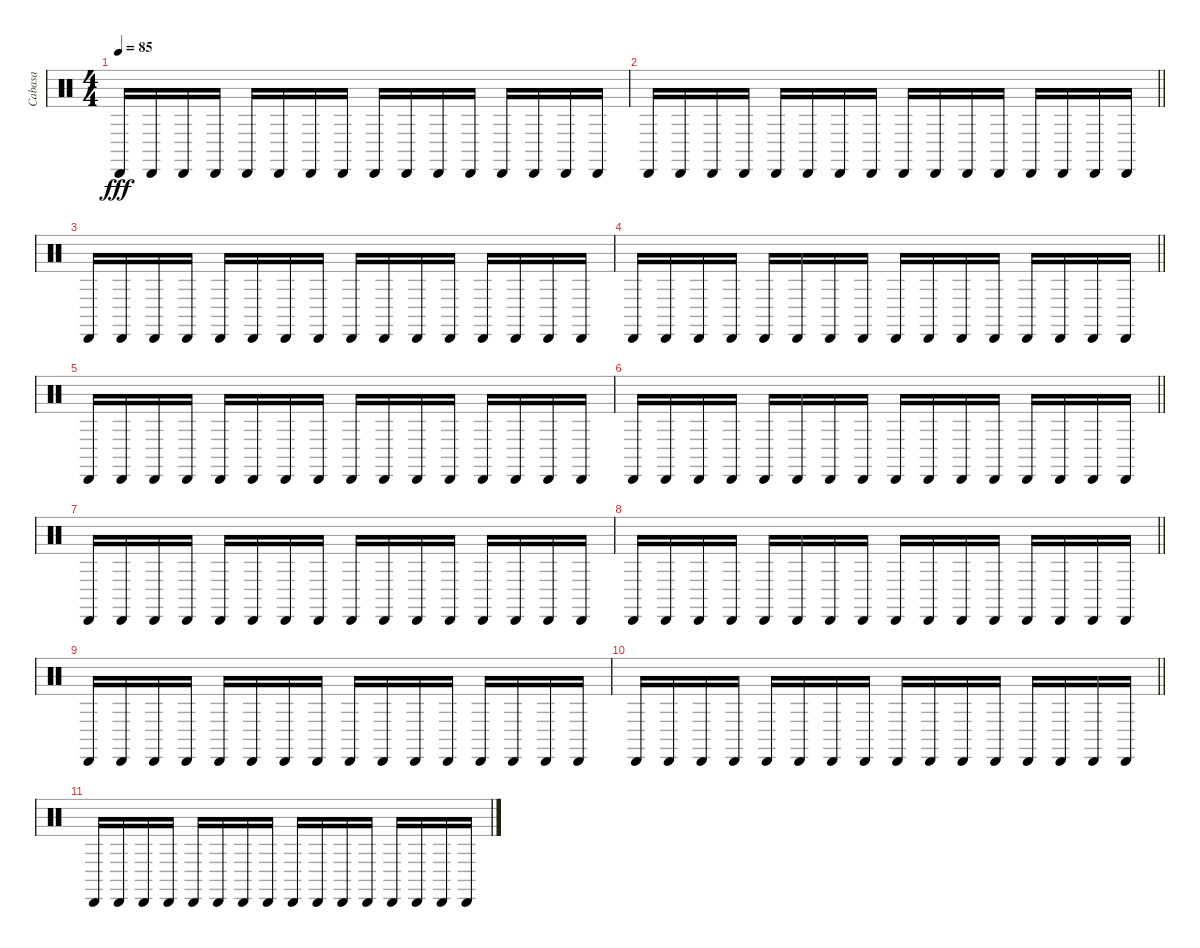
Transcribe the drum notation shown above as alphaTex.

\track ("Cabasa" "Cabasa") {instrument percussion}
\staff {score}
\articulation defaults
\ts (4 4)
\tempo 85
\clef neutral
\ks c "Cabasa (hit)".16{dy fff} "Cabasa (hit)".16 "Cabasa (hit)".16 "Cabasa (hit)".16 "Cabasa (hit)".16 "Cabasa (hit)".16 "Cabasa (hit)".16 "Cabasa (hit)".16 "Cabasa (hit)".16 "Cabasa (hit)".16 "Cabasa (hit)".16 "Cabasa (hit)".16 "Cabasa (hit)".16 "Cabasa (hit)".16 "Cabasa (hit)".16 "Cabasa (hit)".16
|
\barLineRight lightlight "Cabasa (hit)".16 "Cabasa (hit)".16 "Cabasa (hit)".16 "Cabasa (hit)".16 "Cabasa (hit)".16 "Cabasa (hit)".16 "Cabasa (hit)".16 "Cabasa (hit)".16 "Cabasa (hit)".16 "Cabasa (hit)".16 "Cabasa (hit)".16 "Cabasa (hit)".16 "Cabasa (hit)".16 "Cabasa (hit)".16 "Cabasa (hit)".16 "Cabasa (hit)".16
|
"Cabasa (hit)".16 "Cabasa (hit)".16 "Cabasa (hit)".16 "Cabasa (hit)".16 "Cabasa (hit)".16 "Cabasa (hit)".16 "Cabasa (hit)".16 "Cabasa (hit)".16 "Cabasa (hit)".16 "Cabasa (hit)".16 "Cabasa (hit)".16 "Cabasa (hit)".16 "Cabasa (hit)".16 "Cabasa (hit)".16 "Cabasa (hit)".16 "Cabasa (hit)".16 |
\barLineRight lightlight "Cabasa (hit)".16 "Cabasa (hit)".16 "Cabasa (hit)".16 "Cabasa (hit)".16 "Cabasa (hit)".16 "Cabasa (hit)".16 "Cabasa (hit)".16 "Cabasa (hit)".16 "Cabasa (hit)".16 "Cabasa (hit)".16 "Cabasa (hit)".16 "Cabasa (hit)".16 "Cabasa (hit)".16 "Cabasa (hit)".16 "Cabasa (hit)".16 "Cabasa (hit)".16
|
"Cabasa (hit)".16 "Cabasa (hit)".16 "Cabasa (hit)".16 "Cabasa (hit)".16 "Cabasa (hit)".16 "Cabasa (hit)".16 "Cabasa (hit)".16 "Cabasa (hit)".16 "Cabasa (hit)".16 "Cabasa (hit)".16 "Cabasa (hit)".16 "Cabasa (hit)".16 "Cabasa (hit)".16 "Cabasa (hit)".16 "Cabasa (hit)".16 "Cabasa (hit)".16 |
\barLineRight lightlight "Cabasa (hit)".16 "Cabasa (hit)".16 "Cabasa (hit)".16 "Cabasa (hit)".16 "Cabasa (hit)".16 "Cabasa (hit)".16 "Cabasa (hit)".16 "Cabasa (hit)".16 "Cabasa (hit)".16 "Cabasa (hit)".16 "Cabasa (hit)".16 "Cabasa (hit)".16 "Cabasa (hit)".16 "Cabasa (hit)".16 "Cabasa (hit)".16 "Cabasa (hit)".16
|
"Cabasa (hit)".16 "Cabasa (hit)".16 "Cabasa (hit)".16 "Cabasa (hit)".16 "Cabasa (hit)".16 "Cabasa (hit)".16 "Cabasa (hit)".16 "Cabasa (hit)".16 "Cabasa (hit)".16 "Cabasa (hit)".16 "Cabasa (hit)".16 "Cabasa (hit)".16 "Cabasa (hit)".16 "Cabasa (hit)".16 "Cabasa (hit)".16 "Cabasa (hit)".16 |
\barLineRight lightlight "Cabasa (hit)".16 "Cabasa (hit)".16 "Cabasa (hit)".16 "Cabasa (hit)".16 "Cabasa (hit)".16 "Cabasa (hit)".16 "Cabasa (hit)".16 "Cabasa (hit)".16 "Cabasa (hit)".16 "Cabasa (hit)".16 "Cabasa (hit)".16 "Cabasa (hit)".16 "Cabasa (hit)".16 "Cabasa (hit)".16 "Cabasa (hit)".16 "Cabasa (hit)".16
|
"Cabasa (hit)".16 "Cabasa (hit)".16 "Cabasa (hit)".16 "Cabasa (hit)".16 "Cabasa (hit)".16 "Cabasa (hit)".16 "Cabasa (hit)".16 "Cabasa (hit)".16 "Cabasa (hit)".16 "Cabasa (hit)".16 "Cabasa (hit)".16 "Cabasa (hit)".16 "Cabasa (hit)".16 "Cabasa (hit)".16 "Cabasa (hit)".16 "Cabasa (hit)".16 |
\barLineRight lightlight "Cabasa (hit)".16 "Cabasa (hit)".16 "Cabasa (hit)".16 "Cabasa (hit)".16 "Cabasa (hit)".16 "Cabasa (hit)".16 "Cabasa (hit)".16 "Cabasa (hit)".16 "Cabasa (hit)".16 "Cabasa (hit)".16 "Cabasa (hit)".16 "Cabasa (hit)".16 "Cabasa (hit)".16 "Cabasa (hit)".16 "Cabasa (hit)".16 "Cabasa (hit)".16
|
"Cabasa (hit)".16 "Cabasa (hit)".16 "Cabasa (hit)".16 "Cabasa (hit)".16 "Cabasa (hit)".16 "Cabasa (hit)".16 "Cabasa (hit)".16 "Cabasa (hit)".16 "Cabasa (hit)".16 "Cabasa (hit)".16 "Cabasa (hit)".16 "Cabasa (hit)".16 "Cabasa (hit)".16 "Cabasa (hit)".16 "Cabasa (hit)".16 "Cabasa (hit)".16
